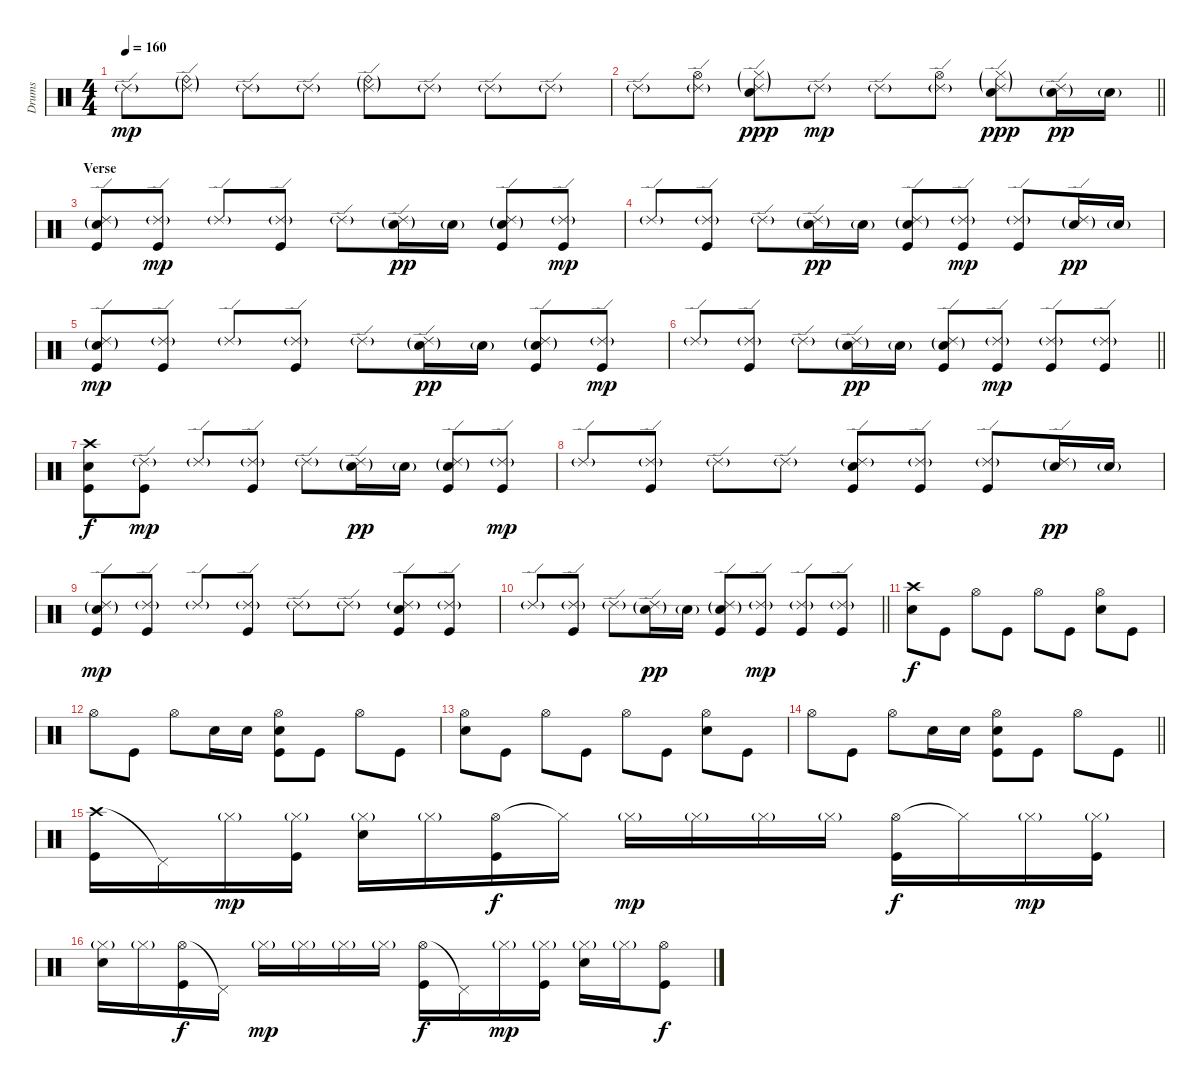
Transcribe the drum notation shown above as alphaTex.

\track ("Drums" "Drums") {instrument percussion}
\staff {score}
\articulation defaults
\ts (4 4)
\tempo 160
\clef neutral
\ks c "Ride (edge) 2"{g}.8{dy mp}
("Ride (edge) 2"{g} "Ride (bell)"{g}).8 "Ride (edge) 2"{g}.8 "Ride (edge) 2"{g}.8 ("Ride (edge) 2"{g} "Ride (bell)"{g}).8 "Ride (edge) 2"{g}.8 "Ride (edge) 2"{g}.8 "Ride (edge) 2"{g}.8 |
\barLineRight lightlight "Ride (edge) 2"{g}.8
("Ride (edge) 2"{g} "Hi-Hat (open)").8 ("Ride (edge) 2"{g} "Snare (hit) 2" "Hi-Hat (closed)"{g}).8{dy ppp} "Ride (edge) 2"{g}.8{dy mp} "Ride (edge) 2"{g}.8 ("Ride (edge) 2"{g} "Hi-Hat (open)").8 ("Ride (edge) 2"{g} "Snare (hit) 2" "Hi-Hat (closed)"{g}).8{dy ppp} ("Ride (edge) 2"{g} "Snare (hit) 2"{g}).16{dy pp} "Snare (hit) 2"{g}.16 |
\section ("" "Verse")
("Ride (edge) 2"{g} "Snare (hit) 2"{g} "Kick (hit)").8 ("Ride (edge) 2"{g} "Kick (hit)").8{dy mp} "Ride (edge) 2"{g}.8 ("Ride (edge) 2"{g} "Kick (hit)").8 "Ride (edge) 2"{g}.8 ("Ride (edge) 2"{g} "Snare (hit) 2"{g}).16{dy pp} "Snare (hit) 2"{g}.16 ("Ride (edge) 2"{g} "Snare (hit) 2"{g} "Kick (hit)").8 ("Ride (edge) 2"{g} "Kick (hit)").8{dy mp} |
"Ride (edge) 2"{g}.8 ("Ride (edge) 2"{g} "Kick (hit)").8 "Ride (edge) 2"{g}.8 ("Ride (edge) 2"{g} "Snare (hit) 2"{g}).16{dy pp} "Snare (hit) 2"{g}.16 ("Ride (edge) 2"{g} "Snare (hit) 2"{g} "Kick (hit)").8 ("Ride (edge) 2"{g} "Kick (hit)").8{dy mp} ("Ride (edge) 2"{g} "Kick (hit)").8 ("Ride (edge) 2"{g} "Snare (hit) 2"{g}).16{dy pp} "Snare (hit) 2"{g}.16 |
("Ride (edge) 2"{g} "Snare (hit) 2"{g} "Kick (hit)").8{dy mp} ("Ride (edge) 2"{g} "Kick (hit)").8 "Ride (edge) 2"{g}.8 ("Ride (edge) 2"{g} "Kick (hit)").8 "Ride (edge) 2"{g}.8 ("Ride (edge) 2"{g} "Snare (hit) 2"{g}).16{dy pp} "Snare (hit) 2"{g}.16 ("Ride (edge) 2"{g} "Snare (hit) 2"{g} "Kick (hit)").8 ("Ride (edge) 2"{g} "Kick (hit)").8{dy mp} |
\barLineRight lightlight "Ride (edge) 2"{g}.8
("Ride (edge) 2"{g} "Kick (hit)").8 "Ride (edge) 2"{g}.8 ("Ride (edge) 2"{g} "Snare (hit) 2"{g}).16{dy pp} "Snare (hit) 2"{g}.16 ("Ride (edge) 2"{g} "Snare (hit) 2"{g} "Kick (hit)").8 ("Ride (edge) 2"{g} "Kick (hit)").8{dy mp} ("Ride (edge) 2"{g} "Kick (hit)").8 ("Ride (edge) 2"{g} "Kick (hit)").8 |
("Crash high (hit)" "Snare (hit) 2" "Kick (hit)").8{dy f} ("Ride (edge) 2"{g} "Kick (hit)").8{dy mp} "Ride (edge) 2"{g}.8 ("Ride (edge) 2"{g} "Kick (hit)").8 "Ride (edge) 2"{g}.8 ("Ride (edge) 2"{g} "Snare (hit) 2"{g}).16{dy pp} "Snare (hit) 2"{g}.16 ("Ride (edge) 2"{g} "Snare (hit) 2"{g} "Kick (hit)").8 ("Ride (edge) 2"{g} "Kick (hit)").8{dy mp} |
"Ride (edge) 2"{g}.8 ("Ride (edge) 2"{g} "Kick (hit)").8 "Ride (edge) 2"{g}.8 "Ride (edge) 2"{g}.8 ("Ride (edge) 2"{g} "Snare (hit) 2" "Kick (hit)").8 ("Ride (edge) 2"{g} "Kick (hit)").8 ("Ride (edge) 2"{g} "Kick (hit)").8 ("Ride (edge) 2"{g} "Snare (hit) 2"{g}).16{dy pp} "Snare (hit) 2"{g}.16 |
("Ride (edge) 2"{g} "Snare (hit) 2"{g} "Kick (hit)").8{dy mp} ("Ride (edge) 2"{g} "Kick (hit)").8 "Ride (edge) 2"{g}.8 ("Ride (edge) 2"{g} "Kick (hit)").8 "Ride (edge) 2"{g}.8 "Ride (edge) 2"{g}.8 ("Ride (edge) 2"{g} "Snare (hit) 2" "Kick (hit)").8 ("Ride (edge) 2"{g} "Kick (hit)").8 |
\barLineRight lightlight "Ride (edge) 2"{g}.8
("Ride (edge) 2"{g} "Kick (hit)").8 "Ride (edge) 2"{g}.8 ("Ride (edge) 2"{g} "Snare (hit) 2"{g}).16{dy pp} "Snare (hit) 2"{g}.16 ("Ride (edge) 2"{g} "Snare (hit) 2"{g} "Kick (hit)").8 ("Ride (edge) 2"{g} "Kick (hit)").8{dy mp} ("Ride (edge) 2"{g} "Kick (hit)").8 ("Ride (edge) 2"{g} "Kick (hit)").8 |
("Crash high (hit)" "Snare (hit) 2").8{dy f} "Kick (hit)".8 "Hi-Hat (open)".8 "Kick (hit)".8 "Hi-Hat (open)".8 "Kick (hit)".8 ("Hi-Hat (open)" "Snare (hit) 2").8 "Kick (hit)".8 |
"Hi-Hat (open)".8 "Kick (hit)".8 "Hi-Hat (open)".8 "Snare (hit) 2".16 "Snare (hit) 2".16 ("Hi-Hat (open)" "Snare (hit) 2" "Kick (hit)").8 "Kick (hit)".8 "Hi-Hat (open)".8 "Kick (hit)".8 |
("Hi-Hat (open)" "Snare (hit) 2").8 "Kick (hit)".8 "Hi-Hat (open)".8 "Kick (hit)".8 "Hi-Hat (open)".8 "Kick (hit)".8 ("Hi-Hat (open)" "Snare (hit) 2").8 "Kick (hit)".8 |
\barLineRight lightlight "Hi-Hat (open)".8 "Kick (hit)".8 "Hi-Hat (open)".8 "Snare (hit) 2".16 "Snare (hit) 2".16
("Hi-Hat (open)" "Snare (hit) 2" "Kick (hit)").8 "Kick (hit)".8 "Hi-Hat (open)".8 "Kick (hit)".8 |
("Crash high (hit)" "Kick (hit)").16 "Pedal Hi-Hat (hit)"{t}.16 "Hi-Hat (closed)"{g}.16{dy mp} ("Hi-Hat (closed)"{g} "Kick (hit)").16 ("Hi-Hat (closed)"{g} "Snare (hit) 2").16 "Hi-Hat (closed)"{g}.16 ("Hi-Hat (open)" "Kick (hit)").16{dy f} "Hi-Hat (closed)"{t}.16 "Hi-Hat (closed)"{g}.16{dy mp} "Hi-Hat (closed)"{g}.16 "Hi-Hat (closed)"{g}.16 "Hi-Hat (closed)"{g}.16 ("Hi-Hat (open)" "Kick (hit)").16{dy f} "Hi-Hat (closed)"{t}.16 "Hi-Hat (closed)"{g}.16{dy mp} ("Hi-Hat (closed)"{g} "Kick (hit)").16 |
("Hi-Hat (closed)"{g} "Snare (hit) 2").16 "Hi-Hat (closed)"{g}.16 ("Hi-Hat (open)" "Kick (hit)").16{dy f} "Pedal Hi-Hat (hit)"{t}.16 "Hi-Hat (closed)"{g}.16{dy mp} "Hi-Hat (closed)"{g}.16 "Hi-Hat (closed)"{g}.16 "Hi-Hat (closed)"{g}.16 ("Hi-Hat (open)" "Kick (hit)").16{dy f} "Pedal Hi-Hat (hit)"{t}.16 "Hi-Hat (closed)"{g}.16{dy mp} ("Hi-Hat (closed)"{g} "Kick (hit)").16 ("Hi-Hat (closed)"{g} "Snare (hit) 2").16 "Hi-Hat (closed)"{g}.16 ("Hi-Hat (open)" "Kick (hit)").8{dy f}
